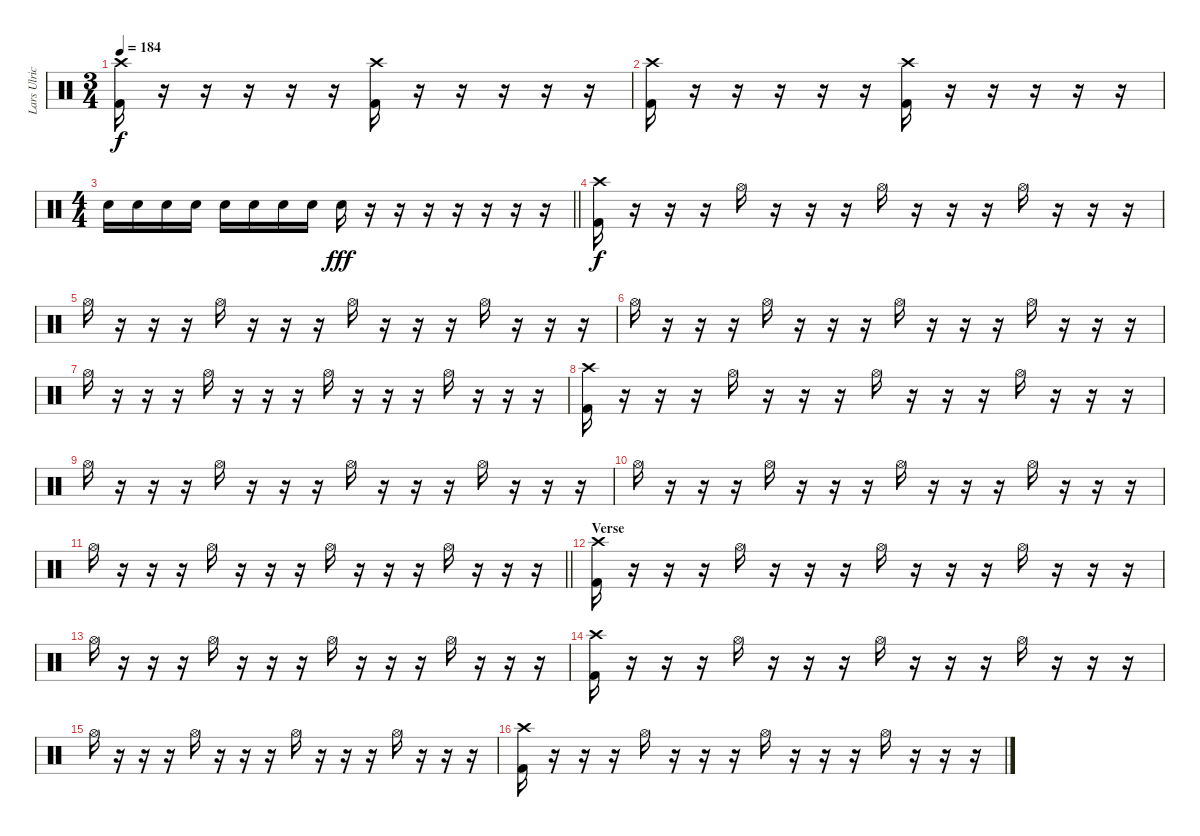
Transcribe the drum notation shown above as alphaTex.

\track ("Lars Ulrich" "Lars Ulric") {instrument percussion}
\staff {score}
\articulation defaults
\ts (3 4)
\tempo 184
\clef neutral
\ks c
("Crash high (hit)" "Kick (hit) 2").16{dy f} r.16 r.16 r.16 r.16 r.16 ("Crash high (hit)" "Kick (hit) 2").16 r.16 r.16 r.16 r.16 r.16 |
("Crash high (hit)" "Kick (hit) 2").16 r.16 r.16 r.16 r.16 r.16 ("Crash high (hit)" "Kick (hit) 2").16 r.16 r.16 r.16 r.16 r.16 |
\ts (4 4)
\barLineRight lightlight "Electric Snare (hit)".16 "Electric Snare (hit)".16 "Electric Snare (hit)".16 "Electric Snare (hit)".16 "Electric Snare (hit)".16 "Electric Snare (hit)".16 "Electric Snare (hit)".16 "Electric Snare (hit)".16 "Electric Snare (hit)".16{dy fff}
r.16 r.16 r.16 r.16 r.16 r.16 r.16 |
\section ("" "")
("Crash high (hit)" "Kick (hit) 2").16{dy f} r.16 r.16 r.16 "Hi-Hat (open)".16 r.16 r.16 r.16 "Hi-Hat (open)".16 r.16 r.16 r.16 "Hi-Hat (open)".16 r.16 r.16 r.16 |
"Hi-Hat (open)".16 r.16 r.16 r.16 "Hi-Hat (open)".16 r.16 r.16 r.16 "Hi-Hat (open)".16 r.16 r.16 r.16 "Hi-Hat (open)".16 r.16 r.16 r.16 |
"Hi-Hat (open)".16 r.16 r.16 r.16 "Hi-Hat (open)".16 r.16 r.16 r.16 "Hi-Hat (open)".16 r.16 r.16 r.16 "Hi-Hat (open)".16 r.16 r.16 r.16 |
"Hi-Hat (open)".16 r.16 r.16 r.16 "Hi-Hat (open)".16 r.16 r.16 r.16 "Hi-Hat (open)".16 r.16 r.16 r.16 "Hi-Hat (open)".16 r.16 r.16 r.16 |
("Crash high (hit)" "Kick (hit) 2").16 r.16 r.16 r.16 "Hi-Hat (open)".16 r.16 r.16 r.16 "Hi-Hat (open)".16 r.16 r.16 r.16 "Hi-Hat (open)".16 r.16 r.16 r.16 |
"Hi-Hat (open)".16 r.16 r.16 r.16 "Hi-Hat (open)".16 r.16 r.16 r.16 "Hi-Hat (open)".16 r.16 r.16 r.16 "Hi-Hat (open)".16 r.16 r.16 r.16 |
"Hi-Hat (open)".16 r.16 r.16 r.16 "Hi-Hat (open)".16 r.16 r.16 r.16 "Hi-Hat (open)".16 r.16 r.16 r.16 "Hi-Hat (open)".16 r.16 r.16 r.16 |
\barLineRight lightlight "Hi-Hat (open)".16
r.16 r.16 r.16 "Hi-Hat (open)".16 r.16 r.16 r.16 "Hi-Hat (open)".16 r.16 r.16 r.16 "Hi-Hat (open)".16 r.16 r.16 r.16 |
\section ("" "Verse")
("Crash high (hit)" "Kick (hit) 2").16 r.16 r.16 r.16 "Hi-Hat (open)".16 r.16 r.16 r.16 "Hi-Hat (open)".16 r.16 r.16 r.16 "Hi-Hat (open)".16 r.16 r.16 r.16 |
"Hi-Hat (open)".16 r.16 r.16 r.16 "Hi-Hat (open)".16 r.16 r.16 r.16 "Hi-Hat (open)".16 r.16 r.16 r.16 "Hi-Hat (open)".16 r.16 r.16 r.16 |
("Crash high (hit)" "Kick (hit) 2").16 r.16 r.16 r.16 "Hi-Hat (open)".16 r.16 r.16 r.16 "Hi-Hat (open)".16 r.16 r.16 r.16 "Hi-Hat (open)".16 r.16 r.16 r.16 |
"Hi-Hat (open)".16 r.16 r.16 r.16 "Hi-Hat (open)".16 r.16 r.16 r.16 "Hi-Hat (open)".16 r.16 r.16 r.16 "Hi-Hat (open)".16 r.16 r.16 r.16 |
("Crash high (hit)" "Kick (hit) 2").16 r.16 r.16 r.16 "Hi-Hat (open)".16 r.16 r.16 r.16 "Hi-Hat (open)".16 r.16 r.16 r.16 "Hi-Hat (open)".16 r.16 r.16 r.16
